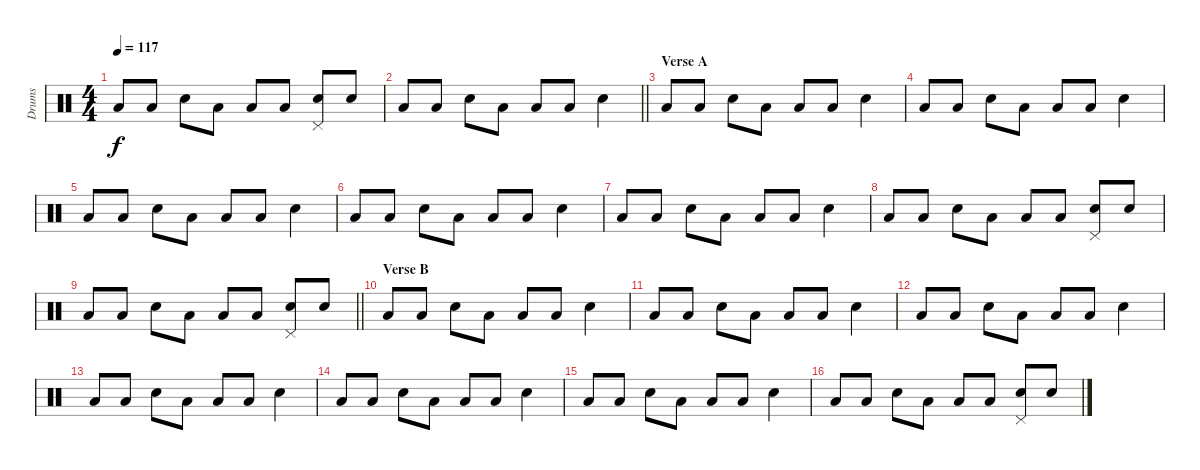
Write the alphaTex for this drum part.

\track ("Drums" "Drums") {instrument percussion}
\staff {score}
\articulation defaults
\ts (4 4)
\tempo 117
\clef neutral
\ks c "Low Tom (hit)".8{dy f} "Low Tom (hit)".8 "Snare (hit) 2".8 "Low Tom (hit)".8 "Low Tom (hit)".8 "Low Tom (hit)".8
("Snare (hit) 2" "Pedal Hi-Hat (hit)").8 "Snare (hit) 2".8 |
\barLineRight lightlight "Low Tom (hit)".8 "Low Tom (hit)".8 "Snare (hit) 2".8 "Low Tom (hit)".8 "Low Tom (hit)".8 "Low Tom (hit)".8 "Snare (hit) 2".4
|
\section ("" "Verse A")
"Low Tom (hit)".8 "Low Tom (hit)".8 "Snare (hit) 2".8 "Low Tom (hit)".8 "Low Tom (hit)".8 "Low Tom (hit)".8 "Snare (hit) 2".4 |
"Low Tom (hit)".8 "Low Tom (hit)".8 "Snare (hit) 2".8 "Low Tom (hit)".8 "Low Tom (hit)".8 "Low Tom (hit)".8 "Snare (hit) 2".4 |
"Low Tom (hit)".8 "Low Tom (hit)".8 "Snare (hit) 2".8 "Low Tom (hit)".8 "Low Tom (hit)".8 "Low Tom (hit)".8 "Snare (hit) 2".4 |
"Low Tom (hit)".8 "Low Tom (hit)".8 "Snare (hit) 2".8 "Low Tom (hit)".8 "Low Tom (hit)".8 "Low Tom (hit)".8 "Snare (hit) 2".4 |
"Low Tom (hit)".8 "Low Tom (hit)".8 "Snare (hit) 2".8 "Low Tom (hit)".8 "Low Tom (hit)".8 "Low Tom (hit)".8 "Snare (hit) 2".4 |
"Low Tom (hit)".8 "Low Tom (hit)".8 "Snare (hit) 2".8 "Low Tom (hit)".8 "Low Tom (hit)".8 "Low Tom (hit)".8 ("Snare (hit) 2" "Pedal Hi-Hat (hit)").8 "Snare (hit) 2".8 |
\barLineRight lightlight "Low Tom (hit)".8 "Low Tom (hit)".8 "Snare (hit) 2".8 "Low Tom (hit)".8 "Low Tom (hit)".8 "Low Tom (hit)".8
("Snare (hit) 2" "Pedal Hi-Hat (hit)").8 "Snare (hit) 2".8 |
\section ("" "Verse B")
"Low Tom (hit)".8 "Low Tom (hit)".8 "Snare (hit) 2".8 "Low Tom (hit)".8 "Low Tom (hit)".8 "Low Tom (hit)".8 "Snare (hit) 2".4 |
"Low Tom (hit)".8 "Low Tom (hit)".8 "Snare (hit) 2".8 "Low Tom (hit)".8 "Low Tom (hit)".8 "Low Tom (hit)".8 "Snare (hit) 2".4 |
"Low Tom (hit)".8 "Low Tom (hit)".8 "Snare (hit) 2".8 "Low Tom (hit)".8 "Low Tom (hit)".8 "Low Tom (hit)".8 "Snare (hit) 2".4 |
"Low Tom (hit)".8 "Low Tom (hit)".8 "Snare (hit) 2".8 "Low Tom (hit)".8 "Low Tom (hit)".8 "Low Tom (hit)".8 "Snare (hit) 2".4 |
"Low Tom (hit)".8 "Low Tom (hit)".8 "Snare (hit) 2".8 "Low Tom (hit)".8 "Low Tom (hit)".8 "Low Tom (hit)".8 "Snare (hit) 2".4 |
"Low Tom (hit)".8 "Low Tom (hit)".8 "Snare (hit) 2".8 "Low Tom (hit)".8 "Low Tom (hit)".8 "Low Tom (hit)".8 "Snare (hit) 2".4 |
"Low Tom (hit)".8 "Low Tom (hit)".8 "Snare (hit) 2".8 "Low Tom (hit)".8 "Low Tom (hit)".8 "Low Tom (hit)".8 ("Snare (hit) 2" "Pedal Hi-Hat (hit)").8 "Snare (hit) 2".8
